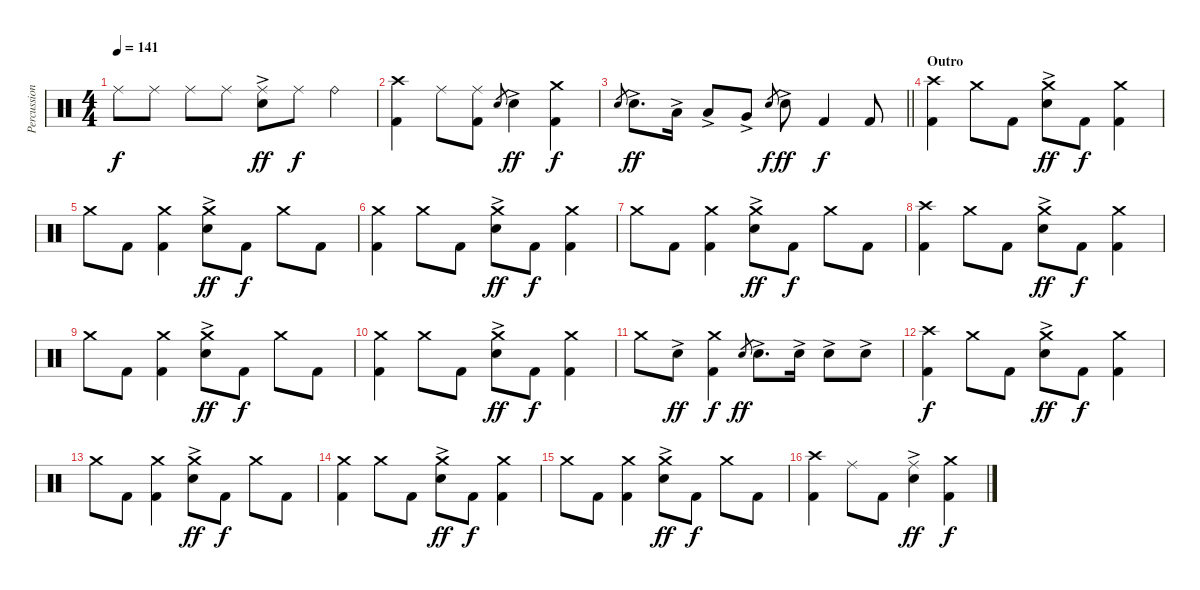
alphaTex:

\track ("Percussion" "Percussion") {instrument percussion}
\staff {score}
\articulation defaults
\ts (4 4)
\tempo 141
\clef neutral
\ks c "Ride (middle)".8{dy f} "Ride (middle)".8 "Ride (middle)".8 "Ride (middle)".8
("Ride (middle)" "Electric Snare (hit)"{ac}).8{dy ff} "Ride (middle)".8{dy f} "Ride (bell)".4 |
("Crash high (hit)" "Kick (hit) 2").4 "Ride (middle)".8 ("Ride (middle)" "Kick (hit) 2").8 "Electric Snare (hit)".8{gr} "Electric Snare (hit)"{ac}.4{dy ff} ("Crash medium (hit)" "Kick (hit) 2").4{dy f} |
\barLineRight lightlight "Electric Snare (hit)".8{gr} "Electric Snare (hit)"{ac}.8{d dy ff} "Low Tom (hit)"{ac}.16 "Low Tom (hit)"{ac}.8 "Very Low Tom (hit)"{ac}.8 "Electric Snare (hit)".8{gr dy f} "Electric Snare (hit)"{ac}.8{dy ff} "Kick (hit) 2".4{dy f} "Kick (hit) 2".8
|
\section ("" "Outro")
("Crash high (hit)" "Kick (hit) 2").4 "Crash medium (hit)".8 "Kick (hit) 2".8 ("Crash medium (hit)" "Electric Snare (hit)"{ac}).8{dy ff} "Kick (hit) 2".8{dy f} ("Crash medium (hit)" "Kick (hit) 2").4 |
"Crash medium (hit)".8 "Kick (hit) 2".8 ("Crash medium (hit)" "Kick (hit) 2").4 ("Crash medium (hit)" "Electric Snare (hit)"{ac}).8{dy ff} "Kick (hit) 2".8{dy f} "Crash medium (hit)".8 "Kick (hit) 2".8 |
("Crash medium (hit)" "Kick (hit) 2").4 "Crash medium (hit)".8 "Kick (hit) 2".8 ("Crash medium (hit)" "Electric Snare (hit)"{ac}).8{dy ff} "Kick (hit) 2".8{dy f} ("Crash medium (hit)" "Kick (hit) 2").4 |
"Crash medium (hit)".8 "Kick (hit) 2".8 ("Crash medium (hit)" "Kick (hit) 2").4 ("Crash medium (hit)" "Electric Snare (hit)"{ac}).8{dy ff} "Kick (hit) 2".8{dy f} "Crash medium (hit)".8 "Kick (hit) 2".8 |
("Crash high (hit)" "Kick (hit) 2").4 "Crash medium (hit)".8 "Kick (hit) 2".8 ("Crash medium (hit)" "Electric Snare (hit)"{ac}).8{dy ff} "Kick (hit) 2".8{dy f} ("Crash medium (hit)" "Kick (hit) 2").4 |
"Crash medium (hit)".8 "Kick (hit) 2".8 ("Crash medium (hit)" "Kick (hit) 2").4 ("Crash medium (hit)" "Electric Snare (hit)"{ac}).8{dy ff} "Kick (hit) 2".8{dy f} "Crash medium (hit)".8 "Kick (hit) 2".8 |
("Crash medium (hit)" "Kick (hit) 2").4 "Crash medium (hit)".8 "Kick (hit) 2".8 ("Crash medium (hit)" "Electric Snare (hit)"{ac}).8{dy ff} "Kick (hit) 2".8{dy f} ("Crash medium (hit)" "Kick (hit) 2").4 |
"Crash medium (hit)".8 "Electric Snare (hit)"{ac}.8{dy ff} ("Crash medium (hit)" "Kick (hit) 2").4{dy f} "Electric Snare (hit)".8{gr dy ff} "Electric Snare (hit)"{ac}.8{d} "Electric Snare (hit)"{ac}.16 "Electric Snare (hit)"{ac}.8 "Electric Snare (hit)"{ac}.8 |
("Crash high (hit)" "Kick (hit) 2").4{dy f} "Crash medium (hit)".8 "Kick (hit) 2".8 ("Crash medium (hit)" "Electric Snare (hit)"{ac}).8{dy ff} "Kick (hit) 2".8{dy f} ("Crash medium (hit)" "Kick (hit) 2").4 |
"Crash medium (hit)".8 "Kick (hit) 2".8 ("Crash medium (hit)" "Kick (hit) 2").4 ("Crash medium (hit)" "Electric Snare (hit)"{ac}).8{dy ff} "Kick (hit) 2".8{dy f} "Crash medium (hit)".8 "Kick (hit) 2".8 |
("Crash medium (hit)" "Kick (hit) 2").4 "Crash medium (hit)".8 "Kick (hit) 2".8 ("Crash medium (hit)" "Electric Snare (hit)"{ac}).8{dy ff} "Kick (hit) 2".8{dy f} ("Crash medium (hit)" "Kick (hit) 2").4 |
"Crash medium (hit)".8 "Kick (hit) 2".8 ("Crash medium (hit)" "Kick (hit) 2").4 ("Crash medium (hit)" "Electric Snare (hit)"{ac}).8{dy ff} "Kick (hit) 2".8{dy f} "Crash medium (hit)".8 "Kick (hit) 2".8 |
("Crash high (hit)" "Kick (hit) 2").4 "Ride (middle)".8 "Kick (hit) 2".8 ("Ride (middle)" "Electric Snare (hit)"{ac}).4{dy ff} ("Crash medium (hit)" "Kick (hit) 2").4{dy f}
